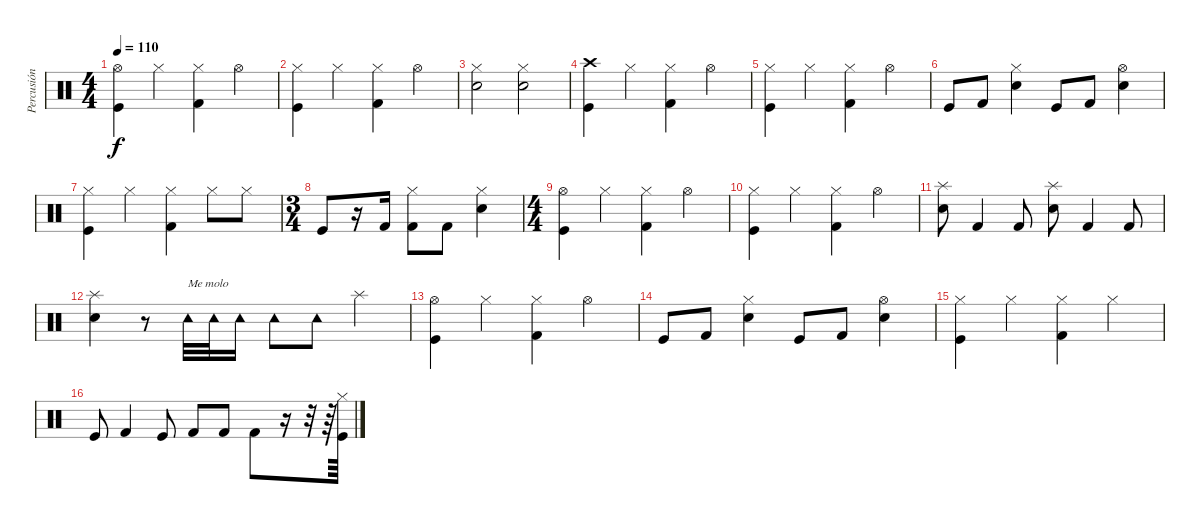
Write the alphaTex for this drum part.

\track ("Percusión" "Percusión") {instrument percussion}
\staff {score}
\articulation defaults
\ts (4 4)
\tempo 110
\clef neutral
\ks c
("Kick (hit)" "Hi-Hat (open)").4{dy f} "Hi-Hat (closed)".4 ("Kick (hit) 2" "Hi-Hat (closed)").4 "Hi-Hat (open)".4 |
("Kick (hit)" "Hi-Hat (closed)").4 "Hi-Hat (closed)".4 ("Kick (hit) 2" "Hi-Hat (closed)").4 "Hi-Hat (open)".4 |
("Hi-Hat (closed)" "Snare (hit) 2").2 ("Hi-Hat (closed)" "Snare (hit) 2").2 |
("Kick (hit)" "Crash high (hit)").4 "Hi-Hat (closed)".4 ("Kick (hit) 2" "Hi-Hat (closed)").4 "Hi-Hat (open)".4 |
("Kick (hit)" "Hi-Hat (closed)").4 "Hi-Hat (closed)".4 ("Kick (hit) 2" "Hi-Hat (closed)").4 "Hi-Hat (open)".4 |
"Kick (hit)".8 "Kick (hit) 2".8 ("Hi-Hat (closed)" "Snare (hit) 2").4 "Kick (hit)".8 "Kick (hit) 2".8 ("Hi-Hat (open)" "Snare (hit) 2").4 |
("Kick (hit)" "Hi-Hat (closed)").4 "Hi-Hat (closed)".4 ("Kick (hit) 2" "Hi-Hat (closed)").4 "Hi-Hat (closed)".8 "Hi-Hat (closed)".8 |
\ts (3 4)
"Kick (hit)".8 r.16 "Kick (hit) 2".16 ("Hi-Hat (closed)" "Kick (hit) 2").8 "Kick (hit) 2".8 ("Hi-Hat (closed)" "Snare (hit) 2").4 |
\ts (4 4)
("Kick (hit)" "Hi-Hat (open)").4 "Hi-Hat (closed)".4 ("Kick (hit) 2" "Hi-Hat (closed)").4 "Hi-Hat (open)".4 |
("Kick (hit)" "Hi-Hat (closed)").4 "Hi-Hat (closed)".4 ("Kick (hit) 2" "Hi-Hat (closed)").4 "Hi-Hat (open)".4 |
("Splash (hit)" "Snare (hit) 2").8 "Kick (hit) 2".4 "Kick (hit) 2".8 ("Splash (hit)" "Snare (hit) 2").8 "Kick (hit) 2".4 "Kick (hit) 2".8 |
("Splash (hit)" "Snare (hit) 2").4 r.8 "Tambourine (hit)".32{txt "Me molo"} "Tambourine (hit)".32 "Tambourine (hit)".16 "Tambourine (hit)".8 "Tambourine (hit)".8 "Splash (hit)".4 |
("Kick (hit)" "Hi-Hat (open)").4 "Hi-Hat (closed)".4 ("Kick (hit) 2" "Hi-Hat (closed)").4 "Hi-Hat (open)".4 |
"Kick (hit)".8 "Kick (hit) 2".8 ("Hi-Hat (closed)" "Snare (hit) 2").4 "Kick (hit)".8 "Kick (hit) 2".8 ("Hi-Hat (open)" "Snare (hit) 2").4 |
("Hi-Hat (closed)" "Kick (hit)").4 "Hi-Hat (closed)".4 ("Hi-Hat (closed)" "Kick (hit) 2").4 "Hi-Hat (closed)".4 |
"Kick (hit)".8 "Kick (hit) 2".4 "Kick (hit)".8 "Kick (hit) 2".8 "Kick (hit) 2".8 "Kick (hit) 2".8 r.16 r.32 r.64 ("Hi-Hat (closed)" "Kick (hit)").64
